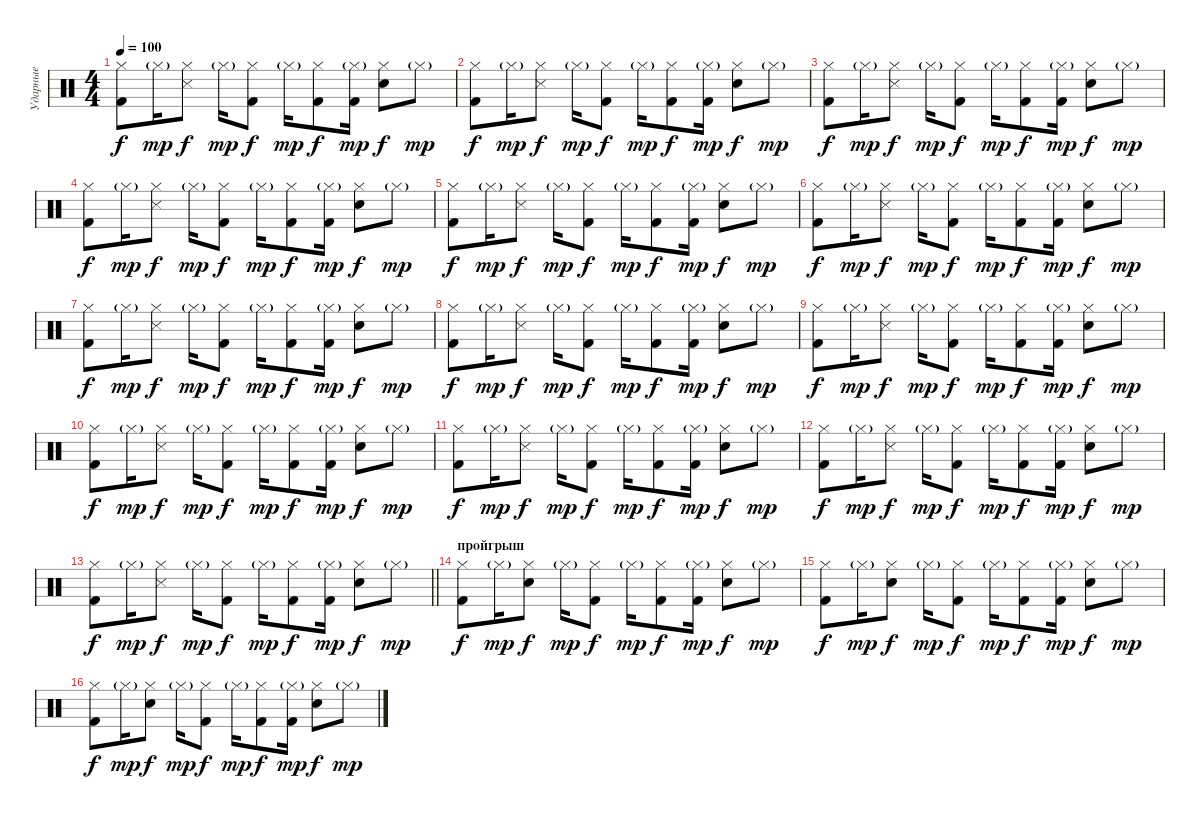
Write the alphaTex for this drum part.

\track ("Ударные" "Ударные") {instrument percussion}
\staff {score}
\articulation defaults
\ts (4 4)
\tempo 100
\clef neutral
\ks c
("Kick (hit) 2" "Hi-Hat (closed)").8{dy f} "Hi-Hat (closed)"{g}.16{dy mp} ("Snare (side stick) 3" "Hi-Hat (closed)").8{dy f} "Hi-Hat (closed)"{g}.16{dy mp} ("Kick (hit) 2" "Hi-Hat (closed)").8{dy f} "Hi-Hat (closed)"{g}.16{dy mp} ("Kick (hit) 2" "Hi-Hat (closed)").8{dy f} ("Kick (hit) 2" "Hi-Hat (closed)"{g}).16{dy mp} ("Snare (hit) 2" "Hi-Hat (closed)").8{dy f} "Hi-Hat (closed)"{g}.8{dy mp} |
("Kick (hit) 2" "Hi-Hat (closed)").8{dy f} "Hi-Hat (closed)"{g}.16{dy mp} ("Snare (side stick) 3" "Hi-Hat (closed)").8{dy f} "Hi-Hat (closed)"{g}.16{dy mp} ("Kick (hit) 2" "Hi-Hat (closed)").8{dy f} "Hi-Hat (closed)"{g}.16{dy mp} ("Kick (hit) 2" "Hi-Hat (closed)").8{dy f} ("Kick (hit) 2" "Hi-Hat (closed)"{g}).16{dy mp} ("Snare (hit) 2" "Hi-Hat (closed)").8{dy f} "Hi-Hat (closed)"{g}.8{dy mp} |
("Kick (hit) 2" "Hi-Hat (closed)").8{dy f} "Hi-Hat (closed)"{g}.16{dy mp} ("Snare (side stick) 3" "Hi-Hat (closed)").8{dy f} "Hi-Hat (closed)"{g}.16{dy mp} ("Kick (hit) 2" "Hi-Hat (closed)").8{dy f} "Hi-Hat (closed)"{g}.16{dy mp} ("Kick (hit) 2" "Hi-Hat (closed)").8{dy f} ("Kick (hit) 2" "Hi-Hat (closed)"{g}).16{dy mp} ("Snare (hit) 2" "Hi-Hat (closed)").8{dy f} "Hi-Hat (closed)"{g}.8{dy mp} |
("Kick (hit) 2" "Hi-Hat (closed)").8{dy f} "Hi-Hat (closed)"{g}.16{dy mp} ("Snare (side stick) 3" "Hi-Hat (closed)").8{dy f} "Hi-Hat (closed)"{g}.16{dy mp} ("Kick (hit) 2" "Hi-Hat (closed)").8{dy f} "Hi-Hat (closed)"{g}.16{dy mp} ("Kick (hit) 2" "Hi-Hat (closed)").8{dy f} ("Kick (hit) 2" "Hi-Hat (closed)"{g}).16{dy mp} ("Snare (hit) 2" "Hi-Hat (closed)").8{dy f} "Hi-Hat (closed)"{g}.8{dy mp} |
("Kick (hit) 2" "Hi-Hat (closed)").8{dy f} "Hi-Hat (closed)"{g}.16{dy mp} ("Snare (side stick) 3" "Hi-Hat (closed)").8{dy f} "Hi-Hat (closed)"{g}.16{dy mp} ("Kick (hit) 2" "Hi-Hat (closed)").8{dy f} "Hi-Hat (closed)"{g}.16{dy mp} ("Kick (hit) 2" "Hi-Hat (closed)").8{dy f} ("Kick (hit) 2" "Hi-Hat (closed)"{g}).16{dy mp} ("Snare (hit) 2" "Hi-Hat (closed)").8{dy f} "Hi-Hat (closed)"{g}.8{dy mp} |
("Kick (hit) 2" "Hi-Hat (closed)").8{dy f} "Hi-Hat (closed)"{g}.16{dy mp} ("Snare (side stick) 3" "Hi-Hat (closed)").8{dy f} "Hi-Hat (closed)"{g}.16{dy mp} ("Kick (hit) 2" "Hi-Hat (closed)").8{dy f} "Hi-Hat (closed)"{g}.16{dy mp} ("Kick (hit) 2" "Hi-Hat (closed)").8{dy f} ("Kick (hit) 2" "Hi-Hat (closed)"{g}).16{dy mp} ("Snare (hit) 2" "Hi-Hat (closed)").8{dy f} "Hi-Hat (closed)"{g}.8{dy mp} |
("Kick (hit) 2" "Hi-Hat (closed)").8{dy f} "Hi-Hat (closed)"{g}.16{dy mp} ("Snare (side stick) 3" "Hi-Hat (closed)").8{dy f} "Hi-Hat (closed)"{g}.16{dy mp} ("Kick (hit) 2" "Hi-Hat (closed)").8{dy f} "Hi-Hat (closed)"{g}.16{dy mp} ("Kick (hit) 2" "Hi-Hat (closed)").8{dy f} ("Kick (hit) 2" "Hi-Hat (closed)"{g}).16{dy mp} ("Snare (hit) 2" "Hi-Hat (closed)").8{dy f} "Hi-Hat (closed)"{g}.8{dy mp} |
("Kick (hit) 2" "Hi-Hat (closed)").8{dy f} "Hi-Hat (closed)"{g}.16{dy mp} ("Snare (side stick) 3" "Hi-Hat (closed)").8{dy f} "Hi-Hat (closed)"{g}.16{dy mp} ("Kick (hit) 2" "Hi-Hat (closed)").8{dy f} "Hi-Hat (closed)"{g}.16{dy mp} ("Kick (hit) 2" "Hi-Hat (closed)").8{dy f} ("Kick (hit) 2" "Hi-Hat (closed)"{g}).16{dy mp} ("Snare (hit) 2" "Hi-Hat (closed)").8{dy f} "Hi-Hat (closed)"{g}.8{dy mp} |
("Kick (hit) 2" "Hi-Hat (closed)").8{dy f} "Hi-Hat (closed)"{g}.16{dy mp} ("Snare (side stick) 3" "Hi-Hat (closed)").8{dy f} "Hi-Hat (closed)"{g}.16{dy mp} ("Kick (hit) 2" "Hi-Hat (closed)").8{dy f} "Hi-Hat (closed)"{g}.16{dy mp} ("Kick (hit) 2" "Hi-Hat (closed)").8{dy f} ("Kick (hit) 2" "Hi-Hat (closed)"{g}).16{dy mp} ("Snare (hit) 2" "Hi-Hat (closed)").8{dy f} "Hi-Hat (closed)"{g}.8{dy mp} |
("Kick (hit) 2" "Hi-Hat (closed)").8{dy f} "Hi-Hat (closed)"{g}.16{dy mp} ("Snare (side stick) 3" "Hi-Hat (closed)").8{dy f} "Hi-Hat (closed)"{g}.16{dy mp} ("Kick (hit) 2" "Hi-Hat (closed)").8{dy f} "Hi-Hat (closed)"{g}.16{dy mp} ("Kick (hit) 2" "Hi-Hat (closed)").8{dy f} ("Kick (hit) 2" "Hi-Hat (closed)"{g}).16{dy mp} ("Snare (hit) 2" "Hi-Hat (closed)").8{dy f} "Hi-Hat (closed)"{g}.8{dy mp} |
("Kick (hit) 2" "Hi-Hat (closed)").8{dy f} "Hi-Hat (closed)"{g}.16{dy mp} ("Snare (side stick) 3" "Hi-Hat (closed)").8{dy f} "Hi-Hat (closed)"{g}.16{dy mp} ("Kick (hit) 2" "Hi-Hat (closed)").8{dy f} "Hi-Hat (closed)"{g}.16{dy mp} ("Kick (hit) 2" "Hi-Hat (closed)").8{dy f} ("Kick (hit) 2" "Hi-Hat (closed)"{g}).16{dy mp} ("Snare (hit) 2" "Hi-Hat (closed)").8{dy f} "Hi-Hat (closed)"{g}.8{dy mp} |
("Kick (hit) 2" "Hi-Hat (closed)").8{dy f} "Hi-Hat (closed)"{g}.16{dy mp} ("Snare (side stick) 3" "Hi-Hat (closed)").8{dy f} "Hi-Hat (closed)"{g}.16{dy mp} ("Kick (hit) 2" "Hi-Hat (closed)").8{dy f} "Hi-Hat (closed)"{g}.16{dy mp} ("Kick (hit) 2" "Hi-Hat (closed)").8{dy f} ("Kick (hit) 2" "Hi-Hat (closed)"{g}).16{dy mp} ("Snare (hit) 2" "Hi-Hat (closed)").8{dy f} "Hi-Hat (closed)"{g}.8{dy mp} |
\barLineRight lightlight
("Kick (hit) 2" "Hi-Hat (closed)").8{dy f} "Hi-Hat (closed)"{g}.16{dy mp} ("Snare (side stick) 3" "Hi-Hat (closed)").8{dy f} "Hi-Hat (closed)"{g}.16{dy mp} ("Kick (hit) 2" "Hi-Hat (closed)").8{dy f} "Hi-Hat (closed)"{g}.16{dy mp} ("Kick (hit) 2" "Hi-Hat (closed)").8{dy f} ("Kick (hit) 2" "Hi-Hat (closed)"{g}).16{dy mp} ("Snare (hit) 2" "Hi-Hat (closed)").8{dy f} "Hi-Hat (closed)"{g}.8{dy mp} |
\section ("" "пройгрыш")
("Kick (hit) 2" "Hi-Hat (closed)").8{dy f} "Hi-Hat (closed)"{g}.16{dy mp} ("Snare (hit) 2" "Hi-Hat (closed)").8{dy f} "Hi-Hat (closed)"{g}.16{dy mp} ("Kick (hit) 2" "Hi-Hat (closed)").8{dy f} "Hi-Hat (closed)"{g}.16{dy mp} ("Kick (hit) 2" "Hi-Hat (closed)").8{dy f} ("Kick (hit) 2" "Hi-Hat (closed)"{g}).16{dy mp} ("Snare (hit) 2" "Hi-Hat (closed)").8{dy f} "Hi-Hat (closed)"{g}.8{dy mp} |
("Kick (hit) 2" "Hi-Hat (closed)").8{dy f} "Hi-Hat (closed)"{g}.16{dy mp} ("Snare (hit) 2" "Hi-Hat (closed)").8{dy f} "Hi-Hat (closed)"{g}.16{dy mp} ("Kick (hit) 2" "Hi-Hat (closed)").8{dy f} "Hi-Hat (closed)"{g}.16{dy mp} ("Kick (hit) 2" "Hi-Hat (closed)").8{dy f} ("Kick (hit) 2" "Hi-Hat (closed)"{g}).16{dy mp} ("Snare (hit) 2" "Hi-Hat (closed)").8{dy f} "Hi-Hat (closed)"{g}.8{dy mp} |
("Kick (hit) 2" "Hi-Hat (closed)").8{dy f} "Hi-Hat (closed)"{g}.16{dy mp} ("Snare (hit) 2" "Hi-Hat (closed)").8{dy f} "Hi-Hat (closed)"{g}.16{dy mp} ("Kick (hit) 2" "Hi-Hat (closed)").8{dy f} "Hi-Hat (closed)"{g}.16{dy mp} ("Kick (hit) 2" "Hi-Hat (closed)").8{dy f} ("Kick (hit) 2" "Hi-Hat (closed)"{g}).16{dy mp} ("Snare (hit) 2" "Hi-Hat (closed)").8{dy f} "Hi-Hat (closed)"{g}.8{dy mp}
